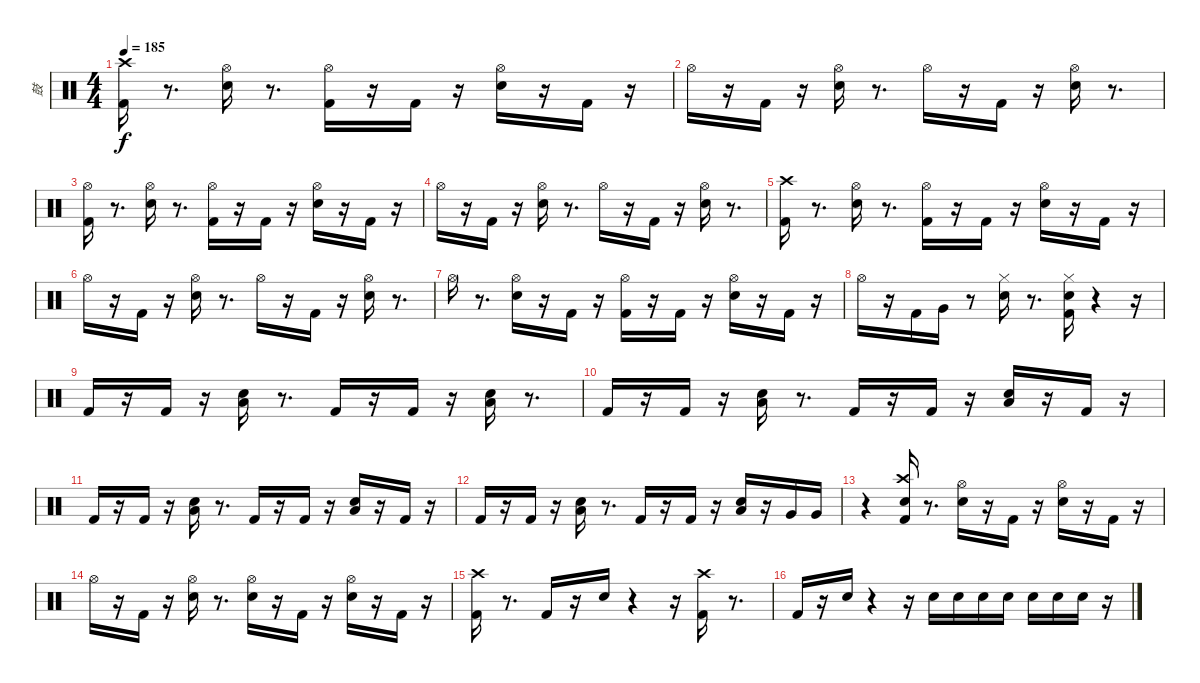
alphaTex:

\track ("鼓" "鼓") {instrument percussion}
\staff {score}
\articulation defaults
\ts (4 4)
\tempo 185
\clef neutral
\ks c
("Kick (hit) 2" "Crash high (hit)").16{dy f} r.8{d} ("Snare (hit) 2" "Hi-Hat (open)").16 r.8{d} ("Kick (hit) 2" "Hi-Hat (open)").16 r.16 "Kick (hit) 2".16 r.16 ("Snare (hit) 2" "Hi-Hat (open)").16 r.16 "Kick (hit) 2".16 r.16 |
"Hi-Hat (open)".16 r.16 "Kick (hit) 2".16 r.16 ("Snare (hit) 2" "Hi-Hat (open)").16 r.8{d} "Hi-Hat (open)".16 r.16 "Kick (hit) 2".16 r.16 ("Snare (hit) 2" "Hi-Hat (open)").16 r.8{d} |
("Kick (hit) 2" "Hi-Hat (open)").16 r.8{d} ("Snare (hit) 2" "Hi-Hat (open)").16 r.8{d} ("Kick (hit) 2" "Hi-Hat (open)").16 r.16 "Kick (hit) 2".16 r.16 ("Snare (hit) 2" "Hi-Hat (open)").16 r.16 "Kick (hit) 2".16 r.16 |
"Hi-Hat (open)".16 r.16 "Kick (hit) 2".16 r.16 ("Snare (hit) 2" "Hi-Hat (open)").16 r.8{d} "Hi-Hat (open)".16 r.16 "Kick (hit) 2".16 r.16 ("Snare (hit) 2" "Hi-Hat (open)").16 r.8{d} |
("Kick (hit) 2" "Crash high (hit)").16 r.8{d} ("Snare (hit) 2" "Hi-Hat (open)").16 r.8{d} ("Kick (hit) 2" "Hi-Hat (open)").16 r.16 "Kick (hit) 2".16 r.16 ("Snare (hit) 2" "Hi-Hat (open)").16 r.16 "Kick (hit) 2".16 r.16 |
"Hi-Hat (open)".16 r.16 "Kick (hit) 2".16 r.16 ("Snare (hit) 2" "Hi-Hat (open)").16 r.8{d} "Hi-Hat (open)".16 r.16 "Kick (hit) 2".16 r.16 ("Snare (hit) 2" "Hi-Hat (open)").16 r.8{d} |
"Hi-Hat (open)".16 r.8{d} ("Snare (hit) 2" "Hi-Hat (open)").16 r.16 "Kick (hit) 2".16 r.16 ("Kick (hit) 2" "Hi-Hat (open)").16 r.16 "Kick (hit) 2".16 r.16 ("Snare (hit) 2" "Hi-Hat (open)").16 r.16 "Kick (hit) 2".16 r.16 |
"Hi-Hat (open)".16 r.16 "Kick (hit) 2".16 "Very Low Tom (hit)".16 r.8 ("Hi-Hat (closed)" "Snare (hit) 2").16 r.8{d} ("Kick (hit) 2" "Hi-Hat (closed)" "Snare (hit) 2").16 r.4 r.16 |
"Kick (hit) 2".16 r.16 "Kick (hit) 2".16 r.16 ("Low Floor Tom (hit)" "Snare (hit) 2").16 r.8{d} "Kick (hit) 2".16 r.16 "Kick (hit) 2".16 r.16 ("Low Floor Tom (hit)" "Snare (hit) 2").16 r.8{d} |
"Kick (hit) 2".16 r.16 "Kick (hit) 2".16 r.16 ("Low Floor Tom (hit)" "Snare (hit) 2").16 r.8{d} "Kick (hit) 2".16 r.16 "Kick (hit) 2".16 r.16 ("Low Floor Tom (hit)" "Snare (hit) 2").16 r.16 "Kick (hit) 2".16 r.16 |
"Kick (hit) 2".16 r.16 "Kick (hit) 2".16 r.16 ("Low Floor Tom (hit)" "Snare (hit) 2").16 r.8{d} "Kick (hit) 2".16 r.16 "Kick (hit) 2".16 r.16 ("Low Floor Tom (hit)" "Snare (hit) 2").16 r.16 "Kick (hit) 2".16 r.16 |
"Kick (hit) 2".16 r.16 "Kick (hit) 2".16 r.16 ("Low Floor Tom (hit)" "Snare (hit) 2").16 r.8{d} "Kick (hit) 2".16 r.16 "Kick (hit) 2".16 r.16 ("Low Floor Tom (hit)" "Snare (hit) 2").16 r.16 "Very Low Tom (hit)".16 "Very Low Tom (hit)".16 |
r.4 ("Snare (hit) 2" "Kick (hit) 2" "Crash high (hit)").16 r.8{d} ("Snare (hit) 2" "Hi-Hat (open)").16 r.16 "Kick (hit) 2".16 r.16 ("Snare (hit) 2" "Hi-Hat (open)").16 r.16 "Kick (hit) 2".16 r.16 |
"Hi-Hat (open)".16 r.16 "Kick (hit) 2".16 r.16 ("Snare (hit) 2" "Hi-Hat (open)").16 r.8{d} ("Hi-Hat (open)" "Snare (hit) 2").16 r.16 "Kick (hit) 2".16 r.16 ("Hi-Hat (open)" "Snare (hit) 2").16 r.16 "Kick (hit) 2".16 r.16 |
("Kick (hit) 2" "Crash high (hit)").16 r.8{d} "Kick (hit) 2".16 r.16 "Snare (hit) 2".16 r.4 r.16 ("Kick (hit) 2" "Crash high (hit)").16 r.8{d} |
"Kick (hit) 2".16 r.16 "Snare (hit) 2".16 r.4 r.16 "Snare (hit) 2".16 "Snare (hit) 2".16 "Snare (hit) 2".16 "Snare (hit) 2".16 "Snare (hit) 2".16 "Snare (hit) 2".16 "Snare (hit) 2".16 r.16
